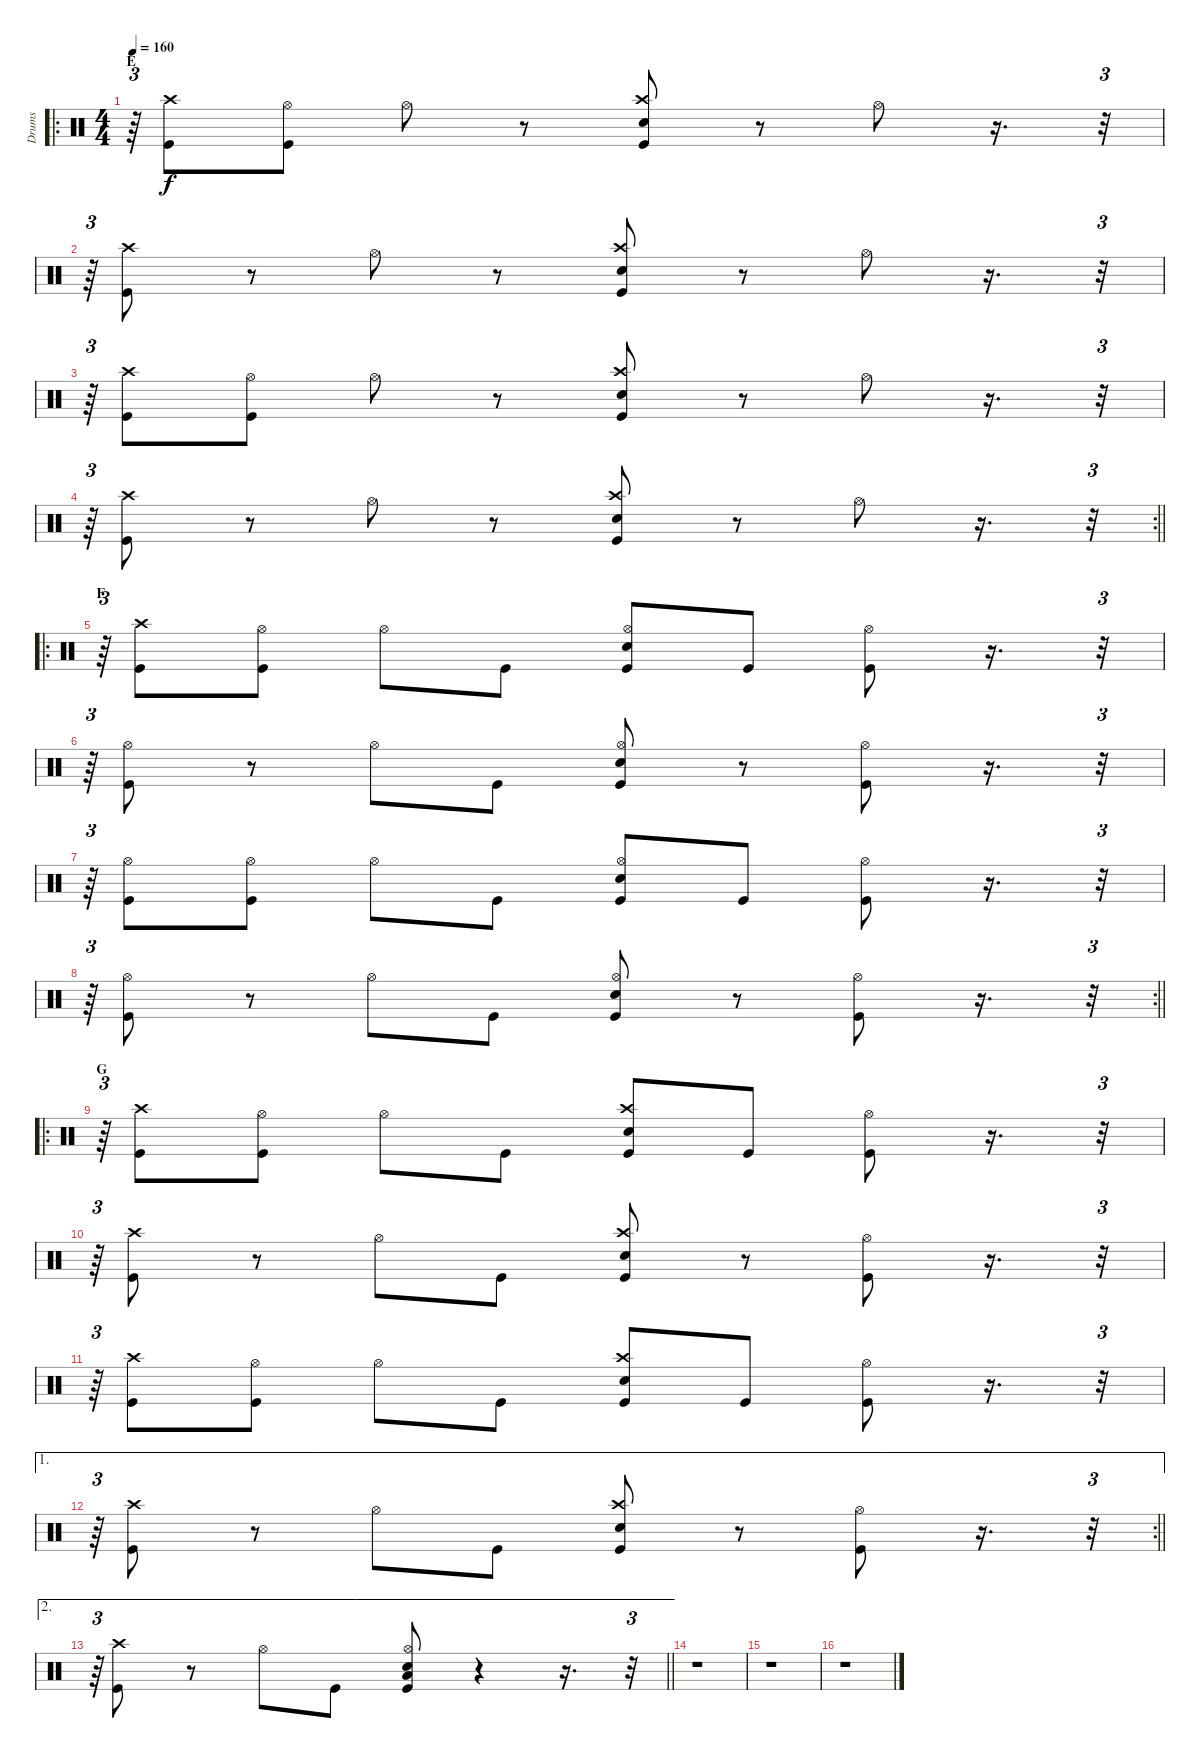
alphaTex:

\track ("Drums" "Drums") {instrument percussion}
\staff {score}
\articulation defaults
\ro
\ts (4 4)
\section ("" "E")
\tempo 160
\clef neutral
\ks c
r.64{tu (3 2) dy f} ("Kick (hit)" "Crash high (hit)").8 ("Kick (hit)" "Hi-Hat (open)").8 "Hi-Hat (open)".8 r.8 ("Kick (hit)" "Electric Snare (hit)" "Crash high (hit)").8 r.8 "Hi-Hat (open)".8 r.16{d} r.32{tu (3 2)} |
r.64{tu (3 2)} ("Kick (hit)" "Crash high (hit)").8 r.8 "Hi-Hat (open)".8 r.8 ("Kick (hit)" "Electric Snare (hit)" "Crash high (hit)").8 r.8 "Hi-Hat (open)".8 r.16{d} r.32{tu (3 2)} |
r.64{tu (3 2)} ("Kick (hit)" "Crash high (hit)").8 ("Kick (hit)" "Hi-Hat (open)").8 "Hi-Hat (open)".8 r.8 ("Kick (hit)" "Electric Snare (hit)" "Crash high (hit)").8 r.8 "Hi-Hat (open)".8 r.16{d} r.32{tu (3 2)} |
\rc 2
\barLineRight lightlight
r.64{tu (3 2)} ("Kick (hit)" "Crash high (hit)").8 r.8 "Hi-Hat (open)".8 r.8 ("Kick (hit)" "Electric Snare (hit)" "Crash high (hit)").8 r.8 "Hi-Hat (open)".8 r.16{d} r.32{tu (3 2)} |
\ro
\section ("" "F")
r.64{tu (3 2)} ("Kick (hit)" "Crash high (hit)").8 ("Kick (hit)" "Hi-Hat (open)").8 "Hi-Hat (open)".8 "Kick (hit)".8 ("Kick (hit)" "Electric Snare (hit)" "Hi-Hat (open)").8 "Kick (hit)".8 ("Kick (hit)" "Hi-Hat (open)").8 r.16{d} r.32{tu (3 2)} |
r.64{tu (3 2)} ("Kick (hit)" "Hi-Hat (open)").8 r.8 "Hi-Hat (open)".8 "Kick (hit)".8 ("Kick (hit)" "Electric Snare (hit)" "Hi-Hat (open)").8 r.8 ("Kick (hit)" "Hi-Hat (open)").8 r.16{d} r.32{tu (3 2)} |
r.64{tu (3 2)} ("Kick (hit)" "Hi-Hat (open)").8 ("Kick (hit)" "Hi-Hat (open)").8 "Hi-Hat (open)".8 "Kick (hit)".8 ("Kick (hit)" "Electric Snare (hit)" "Hi-Hat (open)").8 "Kick (hit)".8 ("Kick (hit)" "Hi-Hat (open)").8 r.16{d} r.32{tu (3 2)} |
\rc 2
\barLineRight lightlight
r.64{tu (3 2)} ("Kick (hit)" "Hi-Hat (open)").8 r.8 "Hi-Hat (open)".8 "Kick (hit)".8 ("Kick (hit)" "Electric Snare (hit)" "Hi-Hat (open)").8 r.8 ("Kick (hit)" "Hi-Hat (open)").8 r.16{d} r.32{tu (3 2)} |
\ro
\section ("" "G")
r.64{tu (3 2)} ("Kick (hit)" "Crash high (hit)").8 ("Kick (hit)" "Hi-Hat (open)").8 "Hi-Hat (open)".8 "Kick (hit)".8 ("Kick (hit)" "Electric Snare (hit)" "Crash high (hit)").8 "Kick (hit)".8 ("Kick (hit)" "Hi-Hat (open)").8 r.16{d} r.32{tu (3 2)} |
r.64{tu (3 2)} ("Kick (hit)" "Crash high (hit)").8 r.8 "Hi-Hat (open)".8 "Kick (hit)".8 ("Kick (hit)" "Electric Snare (hit)" "Crash high (hit)").8 r.8 ("Kick (hit)" "Hi-Hat (open)").8 r.16{d} r.32{tu (3 2)} |
r.64{tu (3 2)} ("Kick (hit)" "Crash high (hit)").8 ("Kick (hit)" "Hi-Hat (open)").8 "Hi-Hat (open)".8 "Kick (hit)".8 ("Kick (hit)" "Electric Snare (hit)" "Crash high (hit)").8 "Kick (hit)".8 ("Kick (hit)" "Hi-Hat (open)").8 r.16{d} r.32{tu (3 2)} |
\ae 1
\rc 2
\barLineRight lightlight
r.64{tu (3 2)} ("Kick (hit)" "Crash high (hit)").8 r.8 "Hi-Hat (open)".8 "Kick (hit)".8 ("Kick (hit)" "Electric Snare (hit)" "Crash high (hit)").8 r.8 ("Kick (hit)" "Hi-Hat (open)").8 r.16{d} r.32{tu (3 2)} |
\ae 2
\barLineRight lightlight
r.64{tu (3 2)} ("Kick (hit)" "Crash high (hit)").8 r.8 "Hi-Hat (open)".8 "Kick (hit)".8 ("Kick (hit)" "Electric Snare (hit)" "Hi-Hat (open)" "Low Floor Tom (hit)").8 r.4 r.16{d} r.32{tu (3 2)} |
r.1 |
r.1 |
r.1
